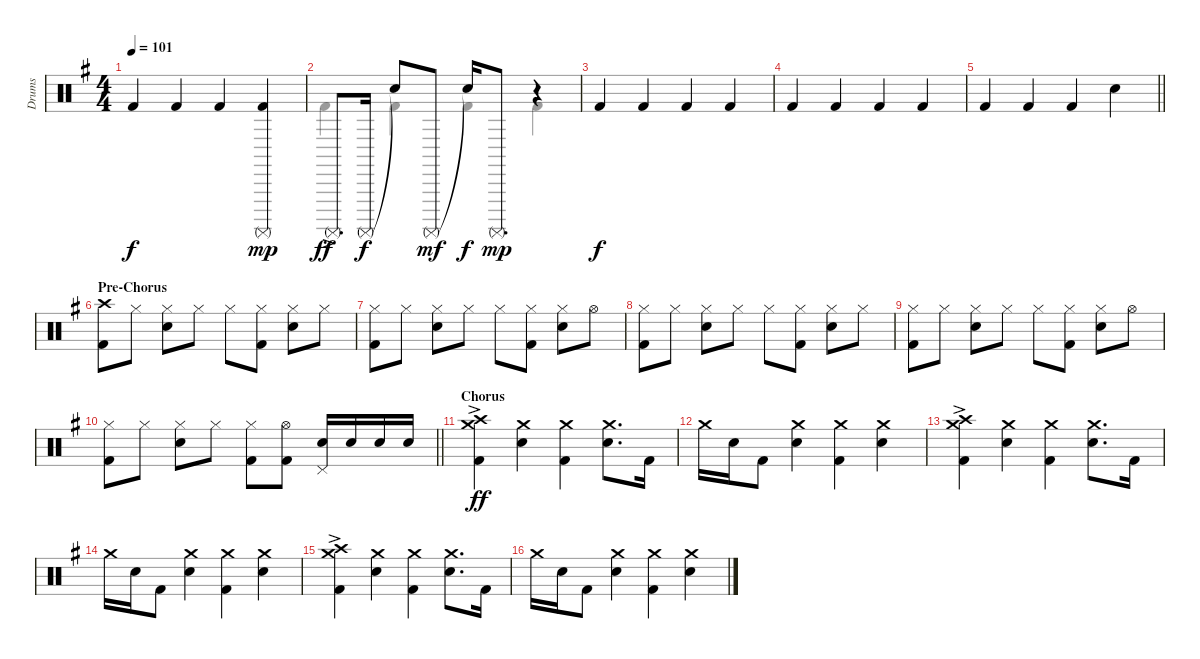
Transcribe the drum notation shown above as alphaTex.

\track ("Drums" "Drums") {instrument percussion}
\staff {score}
\articulation defaults
\voice
\ts (4 4)
\tempo 101
\clef neutral
\ks eminor "Kick (hit) 2".4{dy f} "Kick (hit) 2".4 "Kick (hit) 2".4
("Surdo (mute)" "Kick (hit) 2").4{dy mp} |
"Surdo (mute)"{ac}.8{d dy ff} "Surdo (mute)".16{dy f} "Snare (hit)"{t}.8 "Surdo (mute)".8{dy mf} "Snare (hit)"{t}.16{dy f} "Surdo (mute)".8{d dy mp} r.4 |
"Kick (hit) 2".4{dy f} "Kick (hit) 2".4 "Kick (hit) 2".4 "Kick (hit) 2".4 |
"Kick (hit) 2".4 "Kick (hit) 2".4 "Kick (hit) 2".4 "Kick (hit) 2".4 |
\barLineRight lightlight "Kick (hit) 2".4 "Kick (hit) 2".4 "Kick (hit) 2".4 "Snare (hit) 2".4
|
\section ("" "Pre-Chorus")
("Crash high (hit)" "Kick (hit) 2").8 "Hi-Hat (closed)".8 ("Hi-Hat (closed)" "Snare (hit) 2").8 "Hi-Hat (closed)".8 "Hi-Hat (closed)".8 ("Hi-Hat (closed)" "Kick (hit) 2").8 ("Hi-Hat (closed)" "Snare (hit) 2").8 "Hi-Hat (closed)".8 |
("Hi-Hat (closed)" "Kick (hit) 2").8 "Hi-Hat (closed)".8 ("Hi-Hat (closed)" "Snare (hit) 2").8 "Hi-Hat (closed)".8 "Hi-Hat (closed)".8 ("Hi-Hat (closed)" "Kick (hit) 2").8 ("Hi-Hat (closed)" "Snare (hit) 2").8 "Hi-Hat (open)".8 |
("Hi-Hat (closed)" "Kick (hit) 2").8 "Hi-Hat (closed)".8 ("Hi-Hat (closed)" "Snare (hit) 2").8 "Hi-Hat (closed)".8 "Hi-Hat (closed)".8 ("Hi-Hat (closed)" "Kick (hit) 2").8 ("Hi-Hat (closed)" "Snare (hit) 2").8 "Hi-Hat (closed)".8 |
("Hi-Hat (closed)" "Kick (hit) 2").8 "Hi-Hat (closed)".8 ("Hi-Hat (closed)" "Snare (hit) 2").8 "Hi-Hat (closed)".8 "Hi-Hat (closed)".8 ("Hi-Hat (closed)" "Kick (hit) 2").8 ("Hi-Hat (closed)" "Snare (hit) 2").8 "Hi-Hat (open)".8 |
\barLineRight lightlight
("Hi-Hat (closed)" "Kick (hit) 2").8 "Hi-Hat (closed)".8 ("Hi-Hat (closed)" "Snare (hit) 2").8 "Hi-Hat (closed)".8 ("Hi-Hat (closed)" "Kick (hit) 2").8 ("Hi-Hat (open)" "Kick (hit) 2").8 ("Snare (hit) 2" "Pedal Hi-Hat (hit)").16 "Snare (hit) 2".16 "Snare (hit) 2".16 "Snare (hit) 2".16 |
\section ("" "Chorus")
("Crash medium (hit)"{ac} "Crash high (hit)"{ac} "Kick (hit) 2").4{dy ff} ("Crash medium (hit)" "Snare (hit) 2").4 ("Crash medium (hit)" "Kick (hit) 2").4 ("Crash medium (hit)" "Snare (hit) 2").8{d} "Kick (hit) 2".16 |
"Crash medium (hit)".16 "Snare (hit) 2".16 "Kick (hit) 2".8 ("Crash medium (hit)" "Snare (hit) 2").4 ("Crash medium (hit)" "Kick (hit) 2").4 ("Crash medium (hit)" "Snare (hit) 2").4 |
("Crash medium (hit)"{ac} "Crash high (hit)"{ac} "Kick (hit) 2").4 ("Crash medium (hit)" "Snare (hit) 2").4 ("Crash medium (hit)" "Kick (hit) 2").4 ("Crash medium (hit)" "Snare (hit) 2").8{d} "Kick (hit) 2".16 |
"Crash medium (hit)".16 "Snare (hit) 2".16 "Kick (hit) 2".8 ("Crash medium (hit)" "Snare (hit) 2").4 ("Crash medium (hit)" "Kick (hit) 2").4 ("Crash medium (hit)" "Snare (hit) 2").4 |
("Crash medium (hit)"{ac} "Crash high (hit)"{ac} "Kick (hit) 2").4 ("Crash medium (hit)" "Snare (hit) 2").4 ("Crash medium (hit)" "Kick (hit) 2").4 ("Crash medium (hit)" "Snare (hit) 2").8{d} "Kick (hit) 2".16 |
"Crash medium (hit)".16 "Snare (hit) 2".16 "Kick (hit) 2".8 ("Crash medium (hit)" "Snare (hit) 2").4 ("Crash medium (hit)" "Kick (hit) 2").4 ("Crash medium (hit)" "Snare (hit) 2").4
\voice
\clef neutral
\ottava regular
\simile none
\ks eminor
|
"Kick (hit) 2".4 "Kick (hit) 2".4 "Kick (hit) 2".4 "Kick (hit) 2".4 |
|
|
\barLineRight lightlight
|
|
|
|
|
\barLineRight lightlight
|
|
|
|
|
|
